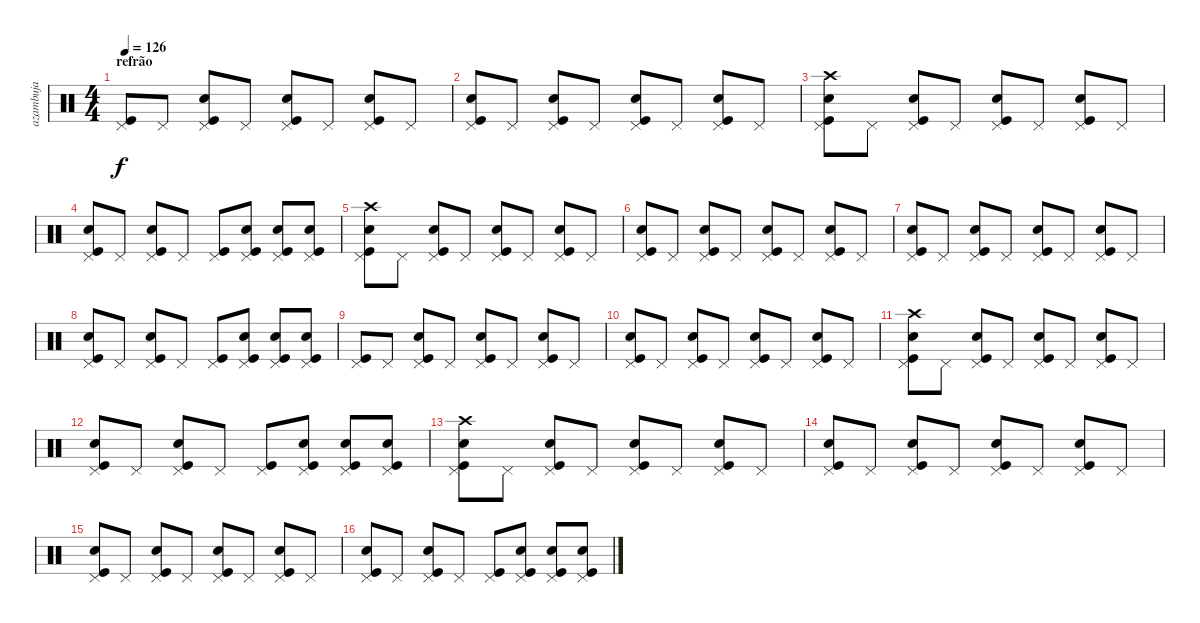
\track ("azambuja" "azambuja") {instrument percussion}
\staff {score}
\articulation defaults
\ts (4 4)
\section ("" "refrão")
\tempo 126
\clef neutral
\ks c
("Pedal Hi-Hat (hit)" "Kick (hit)").8{dy f} "Pedal Hi-Hat (hit)".8 ("Pedal Hi-Hat (hit)" "Snare (hit) 2" "Kick (hit)").8 "Pedal Hi-Hat (hit)".8 ("Pedal Hi-Hat (hit)" "Snare (hit) 2" "Kick (hit)").8 "Pedal Hi-Hat (hit)".8 ("Pedal Hi-Hat (hit)" "Snare (hit) 2" "Kick (hit)").8 "Pedal Hi-Hat (hit)".8 |
("Pedal Hi-Hat (hit)" "Snare (hit) 2" "Kick (hit)").8 "Pedal Hi-Hat (hit)".8 ("Pedal Hi-Hat (hit)" "Snare (hit) 2" "Kick (hit)").8 "Pedal Hi-Hat (hit)".8 ("Pedal Hi-Hat (hit)" "Snare (hit) 2" "Kick (hit)").8 "Pedal Hi-Hat (hit)".8 ("Pedal Hi-Hat (hit)" "Snare (hit) 2" "Kick (hit)").8 "Pedal Hi-Hat (hit)".8 |
("Crash high (hit)" "Pedal Hi-Hat (hit)" "Snare (hit) 2" "Kick (hit)").8 "Pedal Hi-Hat (hit)".8 ("Pedal Hi-Hat (hit)" "Snare (hit) 2" "Kick (hit)").8 "Pedal Hi-Hat (hit)".8 ("Pedal Hi-Hat (hit)" "Snare (hit) 2" "Kick (hit)").8 "Pedal Hi-Hat (hit)".8 ("Pedal Hi-Hat (hit)" "Snare (hit) 2" "Kick (hit)").8 "Pedal Hi-Hat (hit)".8 |
("Pedal Hi-Hat (hit)" "Snare (hit) 2" "Kick (hit)").8 "Pedal Hi-Hat (hit)".8 ("Pedal Hi-Hat (hit)" "Snare (hit) 2" "Kick (hit)").8 "Pedal Hi-Hat (hit)".8 ("Pedal Hi-Hat (hit)" "Kick (hit)").8 ("Pedal Hi-Hat (hit)" "Snare (hit) 2" "Kick (hit)").8 ("Pedal Hi-Hat (hit)" "Snare (hit) 2" "Kick (hit)").8 ("Pedal Hi-Hat (hit)" "Snare (hit) 2" "Kick (hit)").8 |
("Crash high (hit)" "Pedal Hi-Hat (hit)" "Snare (hit) 2" "Kick (hit)").8 "Pedal Hi-Hat (hit)".8 ("Pedal Hi-Hat (hit)" "Snare (hit) 2" "Kick (hit)").8 "Pedal Hi-Hat (hit)".8 ("Pedal Hi-Hat (hit)" "Snare (hit) 2" "Kick (hit)").8 "Pedal Hi-Hat (hit)".8 ("Pedal Hi-Hat (hit)" "Snare (hit) 2" "Kick (hit)").8 "Pedal Hi-Hat (hit)".8 |
("Pedal Hi-Hat (hit)" "Snare (hit) 2" "Kick (hit)").8 "Pedal Hi-Hat (hit)".8 ("Pedal Hi-Hat (hit)" "Snare (hit) 2" "Kick (hit)").8 "Pedal Hi-Hat (hit)".8 ("Pedal Hi-Hat (hit)" "Snare (hit) 2" "Kick (hit)").8 "Pedal Hi-Hat (hit)".8 ("Pedal Hi-Hat (hit)" "Snare (hit) 2" "Kick (hit)").8 "Pedal Hi-Hat (hit)".8 |
("Pedal Hi-Hat (hit)" "Snare (hit) 2" "Kick (hit)").8 "Pedal Hi-Hat (hit)".8 ("Pedal Hi-Hat (hit)" "Snare (hit) 2" "Kick (hit)").8 "Pedal Hi-Hat (hit)".8 ("Pedal Hi-Hat (hit)" "Snare (hit) 2" "Kick (hit)").8 "Pedal Hi-Hat (hit)".8 ("Pedal Hi-Hat (hit)" "Snare (hit) 2" "Kick (hit)").8 "Pedal Hi-Hat (hit)".8 |
("Pedal Hi-Hat (hit)" "Snare (hit) 2" "Kick (hit)").8 "Pedal Hi-Hat (hit)".8 ("Pedal Hi-Hat (hit)" "Snare (hit) 2" "Kick (hit)").8 "Pedal Hi-Hat (hit)".8 ("Pedal Hi-Hat (hit)" "Kick (hit)").8 ("Pedal Hi-Hat (hit)" "Snare (hit) 2" "Kick (hit)").8 ("Pedal Hi-Hat (hit)" "Snare (hit) 2" "Kick (hit)").8 ("Pedal Hi-Hat (hit)" "Snare (hit) 2" "Kick (hit)").8 |
("Pedal Hi-Hat (hit)" "Kick (hit)").8 "Pedal Hi-Hat (hit)".8 ("Pedal Hi-Hat (hit)" "Snare (hit) 2" "Kick (hit)").8 "Pedal Hi-Hat (hit)".8 ("Pedal Hi-Hat (hit)" "Snare (hit) 2" "Kick (hit)").8 "Pedal Hi-Hat (hit)".8 ("Pedal Hi-Hat (hit)" "Snare (hit) 2" "Kick (hit)").8 "Pedal Hi-Hat (hit)".8 |
("Pedal Hi-Hat (hit)" "Snare (hit) 2" "Kick (hit)").8 "Pedal Hi-Hat (hit)".8 ("Pedal Hi-Hat (hit)" "Snare (hit) 2" "Kick (hit)").8 "Pedal Hi-Hat (hit)".8 ("Pedal Hi-Hat (hit)" "Snare (hit) 2" "Kick (hit)").8 "Pedal Hi-Hat (hit)".8 ("Pedal Hi-Hat (hit)" "Snare (hit) 2" "Kick (hit)").8 "Pedal Hi-Hat (hit)".8 |
("Crash high (hit)" "Pedal Hi-Hat (hit)" "Snare (hit) 2" "Kick (hit)").8 "Pedal Hi-Hat (hit)".8 ("Pedal Hi-Hat (hit)" "Snare (hit) 2" "Kick (hit)").8 "Pedal Hi-Hat (hit)".8 ("Pedal Hi-Hat (hit)" "Snare (hit) 2" "Kick (hit)").8 "Pedal Hi-Hat (hit)".8 ("Pedal Hi-Hat (hit)" "Snare (hit) 2" "Kick (hit)").8 "Pedal Hi-Hat (hit)".8 |
("Pedal Hi-Hat (hit)" "Snare (hit) 2" "Kick (hit)").8 "Pedal Hi-Hat (hit)".8 ("Pedal Hi-Hat (hit)" "Snare (hit) 2" "Kick (hit)").8 "Pedal Hi-Hat (hit)".8 ("Pedal Hi-Hat (hit)" "Kick (hit)").8 ("Pedal Hi-Hat (hit)" "Snare (hit) 2" "Kick (hit)").8 ("Pedal Hi-Hat (hit)" "Snare (hit) 2" "Kick (hit)").8 ("Pedal Hi-Hat (hit)" "Snare (hit) 2" "Kick (hit)").8 |
("Crash high (hit)" "Pedal Hi-Hat (hit)" "Snare (hit) 2" "Kick (hit)").8 "Pedal Hi-Hat (hit)".8 ("Pedal Hi-Hat (hit)" "Snare (hit) 2" "Kick (hit)").8 "Pedal Hi-Hat (hit)".8 ("Pedal Hi-Hat (hit)" "Snare (hit) 2" "Kick (hit)").8 "Pedal Hi-Hat (hit)".8 ("Pedal Hi-Hat (hit)" "Snare (hit) 2" "Kick (hit)").8 "Pedal Hi-Hat (hit)".8 |
("Pedal Hi-Hat (hit)" "Snare (hit) 2" "Kick (hit)").8 "Pedal Hi-Hat (hit)".8 ("Pedal Hi-Hat (hit)" "Snare (hit) 2" "Kick (hit)").8 "Pedal Hi-Hat (hit)".8 ("Pedal Hi-Hat (hit)" "Snare (hit) 2" "Kick (hit)").8 "Pedal Hi-Hat (hit)".8 ("Pedal Hi-Hat (hit)" "Snare (hit) 2" "Kick (hit)").8 "Pedal Hi-Hat (hit)".8 |
("Pedal Hi-Hat (hit)" "Snare (hit) 2" "Kick (hit)").8 "Pedal Hi-Hat (hit)".8 ("Pedal Hi-Hat (hit)" "Snare (hit) 2" "Kick (hit)").8 "Pedal Hi-Hat (hit)".8 ("Pedal Hi-Hat (hit)" "Snare (hit) 2" "Kick (hit)").8 "Pedal Hi-Hat (hit)".8 ("Pedal Hi-Hat (hit)" "Snare (hit) 2" "Kick (hit)").8 "Pedal Hi-Hat (hit)".8 |
("Pedal Hi-Hat (hit)" "Snare (hit) 2" "Kick (hit)").8 "Pedal Hi-Hat (hit)".8 ("Pedal Hi-Hat (hit)" "Snare (hit) 2" "Kick (hit)").8 "Pedal Hi-Hat (hit)".8 ("Pedal Hi-Hat (hit)" "Kick (hit)").8 ("Pedal Hi-Hat (hit)" "Snare (hit) 2" "Kick (hit)").8 ("Pedal Hi-Hat (hit)" "Snare (hit) 2" "Kick (hit)").8 ("Pedal Hi-Hat (hit)" "Snare (hit) 2" "Kick (hit)").8
